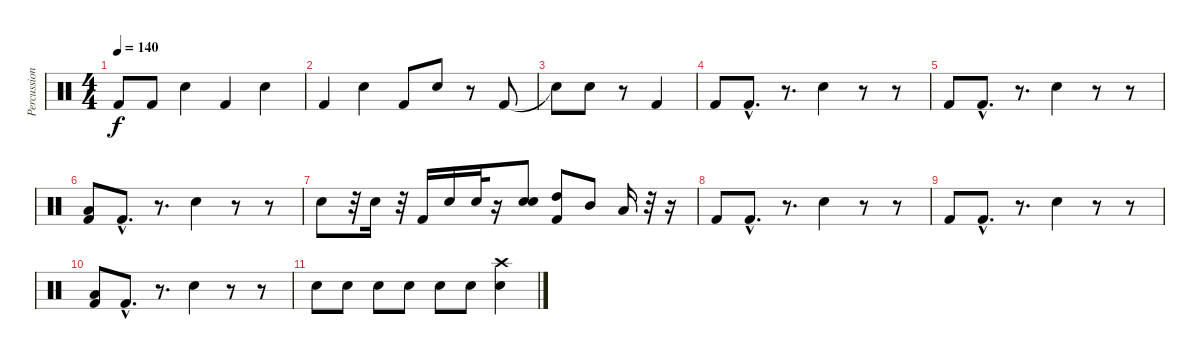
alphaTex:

\track ("Percussion" "Percussion") {instrument percussion}
\staff {score}
\articulation defaults
\ts (4 4)
\tempo 140
\clef neutral
\ks c "Kick (hit) 2"{t}.8{dy f} "Kick (hit) 2".8 "Electric Snare (hit)".4 "Kick (hit) 2".4 "Electric Snare (hit)".4
|
"Kick (hit) 2".4 "Electric Snare (hit)".4 "Kick (hit) 2".8 "Electric Snare (hit)".8 r.8 "Kick (hit) 2".8 |
"Electric Snare (hit)"{t}.8 "Electric Snare (hit)".8 r.8 "Kick (hit) 2".4 |
"Kick (hit) 2".8 "Kick (hit) 2"{hac}.8{d} r.8{d} "Electric Snare (hit)".4 r.8 r.8 |
"Kick (hit) 2".8 "Kick (hit) 2"{hac}.8{d} r.8{d} "Electric Snare (hit)".4 r.8 r.8 |
("Low Floor Tom (hit)" "Kick (hit) 2").8 "Kick (hit) 2"{hac}.8{d} r.8{d} "Electric Snare (hit)".4 r.8 r.8 |
"Electric Snare (hit)".8 r.32 "Electric Snare (hit)".16 r.32 "Kick (hit) 2".16 "Electric Snare (hit)".16 "Electric Snare (hit)".32 r.16 ("Electric Snare (hit)" "Snare (hit)").8 ("Kick (hit) 2" "High Tom (hit)").8 "Mid Tom (hit)".8 "Low Tom (hit)".16 r.32 r.16 |
"Kick (hit) 2".8 "Kick (hit) 2"{hac}.8{d} r.8{d} "Electric Snare (hit)".4 r.8 r.8 |
"Kick (hit) 2".8 "Kick (hit) 2"{hac}.8{d} r.8{d} "Electric Snare (hit)".4 r.8 r.8 |
("Low Floor Tom (hit)" "Kick (hit) 2").8 "Kick (hit) 2"{hac}.8{d} r.8{d} "Electric Snare (hit)".4 r.8 r.8 |
"Electric Snare (hit)".8 "Electric Snare (hit)".8 "Electric Snare (hit)".8 "Electric Snare (hit)".8 "Electric Snare (hit)".8 "Electric Snare (hit)".8 ("Crash high (hit)" "Electric Snare (hit)").4
